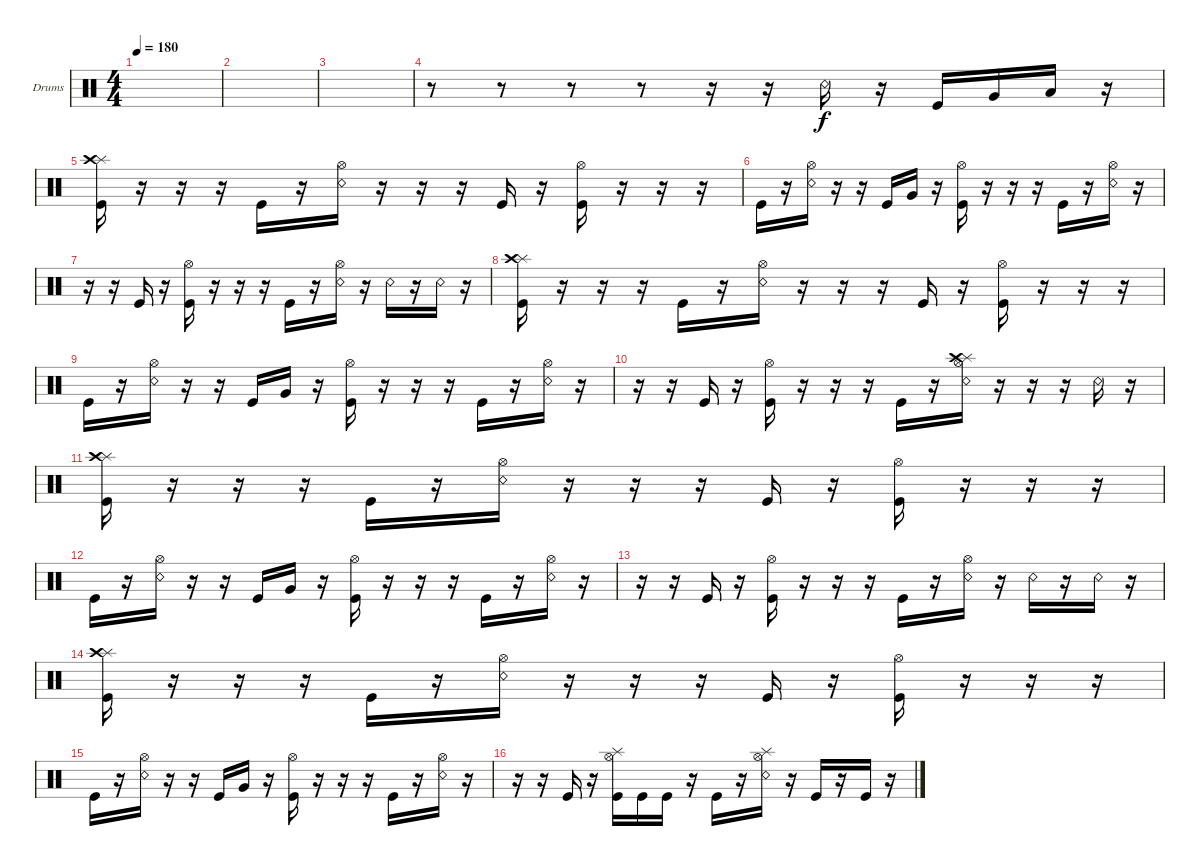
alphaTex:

\defaultSystemsLayout 4
\bracketExtendMode groupsimilarinstruments
\firstSystemTrackNameOrientation horizontal
\otherSystemsTrackNameOrientation horizontal
\track ("Drumkit" "Drums") {instrument percussion}
\staff {score}
\articulation defaults
\ts (4 4)
\tempo 180
\clef neutral
\scale
0.474178
\ks c
|
\scale
0.262911 |
\scale
0.262911 |
\scale
0.333333 r.8 r.8 r.8 r.8 r.16 r.16 "Snare (rim shot)".16 r.16 "Kick (hit)".16 "Very Low Tom (hit)".16 "Low Tom (hit)".16 r.16 |
\scale
0.333333 ("Splash (hit)" "Crash high (hit)" "Kick (hit)").16 r.16 r.16 r.16 "Kick (hit)".16 r.16 ("Hi-Hat (open)" "Snare (rim shot)").16 r.16 r.16 r.16 "Kick (hit)".16 r.16 ("Hi-Hat (open)" "Kick (hit)").16 r.16 r.16 r.16 |
\scale
0.333333 "Kick (hit)".16 r.16 ("Hi-Hat (open)" "Snare (rim shot)").16 r.16 r.16 "Kick (hit)".16 "Very Low Tom (hit)".16 r.16 ("Hi-Hat (open)" "Kick (hit)").16 r.16 r.16 r.16 "Kick (hit)".16 r.16 ("Hi-Hat (open)" "Snare (rim shot)").16 r.16 |
\scale
0.333333 r.16 r.16 "Kick (hit)".16 r.16 ("Hi-Hat (open)" "Kick (hit)").16 r.16 r.16 r.16 "Kick (hit)".16 r.16 ("Hi-Hat (open)" "Snare (rim shot)").16 r.16 "Snare (rim shot)".16 r.16 "Snare (rim shot)".16 r.16 |
\scale
0.333333 ("Splash (hit)" "Crash high (hit)" "Kick (hit)").16 r.16 r.16 r.16 "Kick (hit)".16 r.16 ("Hi-Hat (open)" "Snare (rim shot)").16 r.16 r.16 r.16 "Kick (hit)".16 r.16 ("Hi-Hat (open)" "Kick (hit)").16 r.16 r.16 r.16 |
\scale
0.333333 "Kick (hit)".16 r.16 ("Hi-Hat (open)" "Snare (rim shot)").16 r.16 r.16 "Kick (hit)".16 "Very Low Tom (hit)".16 r.16 ("Hi-Hat (open)" "Kick (hit)").16 r.16 r.16 r.16 "Kick (hit)".16 r.16 ("Hi-Hat (open)" "Snare (rim shot)").16 r.16 |
\scale
0.333333 r.16 r.16 "Kick (hit)".16 r.16 ("Hi-Hat (open)" "Kick (hit)").16 r.16 r.16 r.16 "Kick (hit)".16 r.16 ("Hi-Hat (open)" "Snare (rim shot)" "Splash (hit)" "Crash high (hit)").16 r.16 r.16 r.16 "Snare (rim shot)".16 r.16 |
\scale
0.333333 ("Splash (hit)" "Crash high (hit)" "Kick (hit)").16 r.16 r.16 r.16 "Kick (hit)".16 r.16 ("Hi-Hat (open)" "Snare (rim shot)").16 r.16 r.16 r.16 "Kick (hit)".16 r.16 ("Hi-Hat (open)" "Kick (hit)").16 r.16 r.16 r.16 |
\scale
0.333333 "Kick (hit)".16 r.16 ("Hi-Hat (open)" "Snare (rim shot)").16 r.16 r.16 "Kick (hit)".16 "Very Low Tom (hit)".16 r.16 ("Hi-Hat (open)" "Kick (hit)").16 r.16 r.16 r.16 "Kick (hit)".16 r.16 ("Hi-Hat (open)" "Snare (rim shot)").16 r.16 |
\scale
0.333333 r.16 r.16 "Kick (hit)".16 r.16 ("Hi-Hat (open)" "Kick (hit)").16 r.16 r.16 r.16 "Kick (hit)".16 r.16 ("Hi-Hat (open)" "Snare (rim shot)").16 r.16 "Snare (rim shot)".16 r.16 "Snare (rim shot)".16 r.16 |
\scale
0.333333 ("Splash (hit)" "Crash high (hit)" "Kick (hit)").16 r.16 r.16 r.16 "Kick (hit)".16 r.16 ("Hi-Hat (open)" "Snare (rim shot)").16 r.16 r.16 r.16 "Kick (hit)".16 r.16 ("Hi-Hat (open)" "Kick (hit)").16 r.16 r.16 r.16 |
\scale
0.333333 "Kick (hit)".16 r.16 ("Hi-Hat (open)" "Snare (rim shot)").16 r.16 r.16 "Kick (hit)".16 "Very Low Tom (hit)".16 r.16 ("Hi-Hat (open)" "Kick (hit)").16 r.16 r.16 r.16 "Kick (hit)".16 r.16 ("Hi-Hat (open)" "Snare (rim shot)").16 r.16 |
\scale
0.333333 r.16 r.16 "Kick (hit)".16 r.16 ("Hi-Hat (open)" "Kick (hit)" "Splash (hit)").16 "Kick (hit)".16 "Kick (hit)".16 r.16 "Kick (hit)".16 r.16 ("Hi-Hat (open)" "Snare (rim shot)" "Splash (hit)").16 r.16 "Kick (hit)".16 r.16 "Kick (hit)".16 r.16
